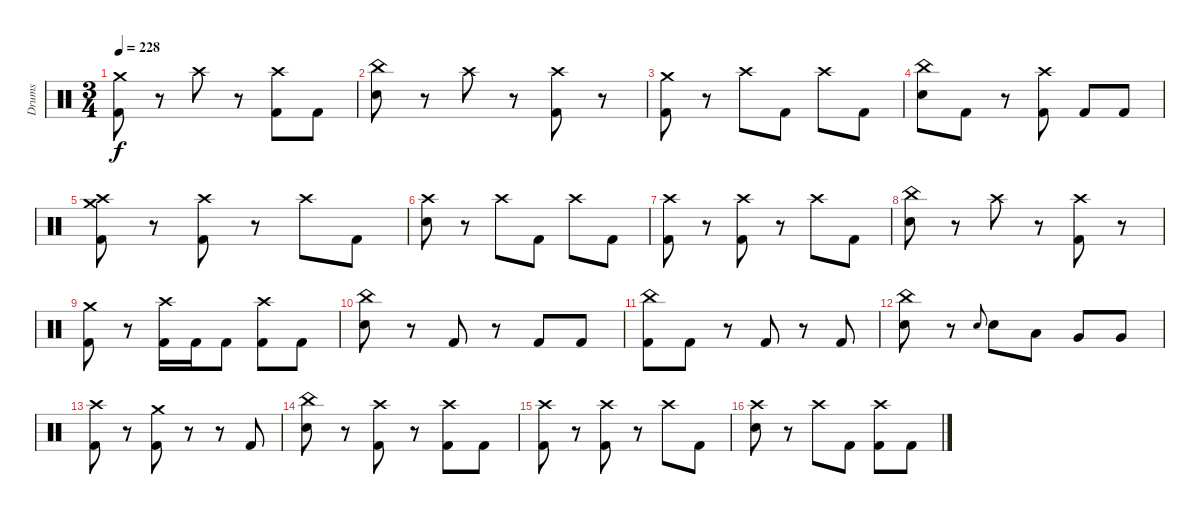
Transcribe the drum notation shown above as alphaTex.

\track ("Drums" "Drums") {instrument percussion}
\staff {score}
\articulation defaults
\ts (3 4)
\tempo 228
\clef neutral
\ks c
("Crash medium (hit)" "Kick (hit) 2").8{dy f} r.8 "Crash high (hit)".8 r.8 ("Crash high (hit)" "Kick (hit) 2").8 "Kick (hit) 2".8 |
("China (hit)" "Electric Snare (hit)").8 r.8 "Crash high (hit)".8 r.8 ("Crash high (hit)" "Kick (hit) 2").8 r.8 |
("Crash medium (hit)" "Kick (hit) 2").8 r.8 "Crash high (hit)".8 "Kick (hit) 2".8 "Crash high (hit)".8 "Kick (hit) 2".8 |
("China (hit)" "Electric Snare (hit)").8 "Kick (hit) 2".8 r.8 ("Crash high (hit)" "Kick (hit) 2").8 "Kick (hit) 2".8 "Kick (hit) 2".8 |
("Crash high (hit)" "Crash medium (hit)" "Kick (hit) 2").8 r.8 ("Crash high (hit)" "Kick (hit) 2").8 r.8 "Crash high (hit)".8 "Kick (hit) 2".8 |
("Crash high (hit)" "Electric Snare (hit)").8 r.8 "Crash high (hit)".8 "Kick (hit) 2".8 "Crash high (hit)".8 "Kick (hit) 2".8 |
("Crash high (hit)" "Kick (hit) 2").8 r.8 ("Crash high (hit)" "Kick (hit) 2").8 r.8 "Crash high (hit)".8 "Kick (hit) 2".8 |
("China (hit)" "Electric Snare (hit)").8 r.8 "Crash high (hit)".8 r.8 ("Crash high (hit)" "Kick (hit) 2").8 r.8 |
("Crash medium (hit)" "Kick (hit) 2").8 r.8 ("Crash high (hit)" "Kick (hit) 2").16 "Kick (hit) 2".16 "Kick (hit) 2".8 ("Crash high (hit)" "Kick (hit) 2").8 "Kick (hit) 2".8 |
("China (hit)" "Electric Snare (hit)").8 r.8 "Kick (hit) 2".8 r.8 "Kick (hit) 2".8 "Kick (hit) 2".8 |
("China (hit)" "Kick (hit) 2").8 "Kick (hit) 2".8 r.8 "Kick (hit) 2".8 r.8 "Kick (hit) 2".8 |
("China (hit)" "Electric Snare (hit)").8 r.8 "Electric Snare (hit)".8{gr onbeat} "Electric Snare (hit)".8 "Low Tom (hit)".8 "Very Low Tom (hit)".8 "Very Low Tom (hit)".8 |
("Crash high (hit)" "Kick (hit) 2").8 r.8 ("Crash medium (hit)" "Kick (hit) 2").8 r.8 r.8 "Kick (hit) 2".8 |
("China (hit)" "Electric Snare (hit)").8 r.8 ("Crash high (hit)" "Kick (hit) 2").8 r.8 ("Crash high (hit)" "Kick (hit) 2").8 "Kick (hit) 2".8 |
("Crash high (hit)" "Kick (hit) 2").8 r.8 ("Crash high (hit)" "Kick (hit) 2").8 r.8 "Crash high (hit)".8 "Kick (hit) 2".8 |
("Crash high (hit)" "Electric Snare (hit)").8 r.8 "Crash high (hit)".8 "Kick (hit) 2".8 ("Crash high (hit)" "Kick (hit) 2").8 "Kick (hit) 2".8
